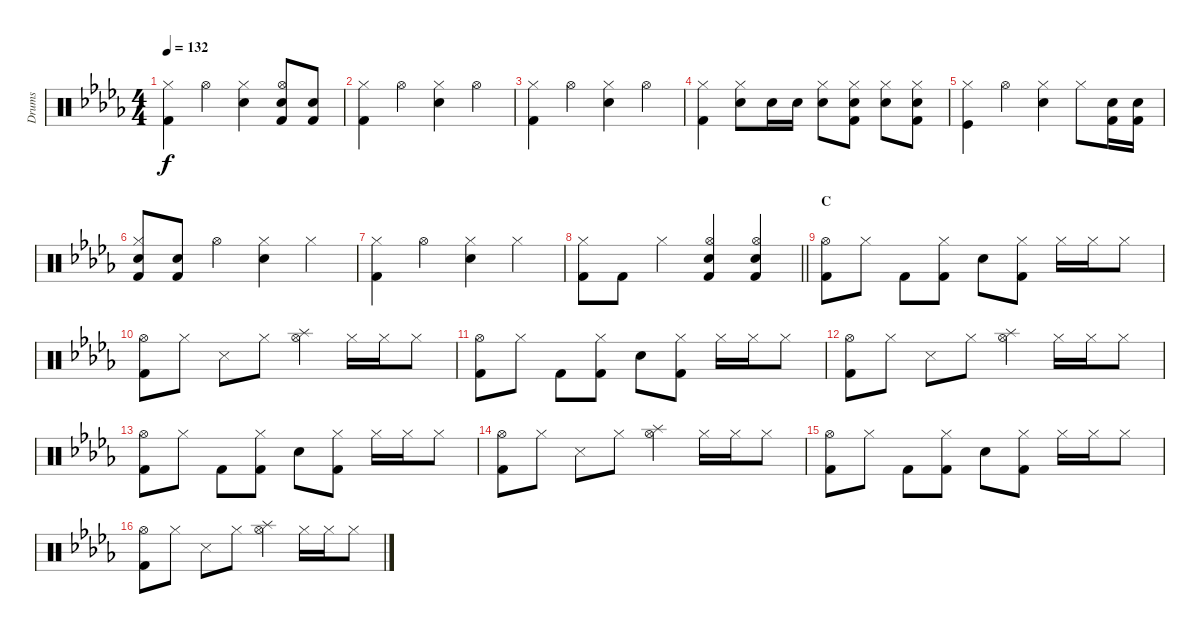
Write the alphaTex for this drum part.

\track ("Drums" "Drums") {instrument percussion}
\staff {score}
\articulation defaults
\ts (4 4)
\tempo 132
\clef neutral
\ks db
("Kick (hit) 2" "Hi-Hat (closed)").4{dy f} "Hi-Hat (open)".4 ("Snare (hit) 2" "Hi-Hat (closed)").4 ("Hi-Hat (open)" "Kick (hit) 2" "Snare (hit) 2").8 ("Kick (hit) 2" "Snare (hit) 2").8 |
("Kick (hit) 2" "Hi-Hat (closed)").4 "Hi-Hat (open)".4 ("Snare (hit) 2" "Hi-Hat (closed)").4 "Hi-Hat (open)".4 |
("Kick (hit) 2" "Hi-Hat (closed)").4 "Hi-Hat (open)".4 ("Snare (hit) 2" "Hi-Hat (closed)").4 "Hi-Hat (open)".4 |
("Kick (hit) 2" "Hi-Hat (closed)").4 ("Snare (hit) 2" "Hi-Hat (closed)").8 "Snare (hit) 2".16 "Snare (hit) 2".16 ("Snare (hit) 2" "Hi-Hat (closed)").8 ("Snare (hit) 2" "Hi-Hat (closed)" "Kick (hit) 2").8 ("Snare (hit) 2" "Hi-Hat (closed)").8 ("Snare (hit) 2" "Hi-Hat (closed)" "Kick (hit) 2").8 |
("Kick (hit)" "Hi-Hat (closed)").4 "Hi-Hat (open)".4 ("Snare (hit) 2" "Hi-Hat (closed)").4 "Hi-Hat (closed)".8 ("Kick (hit) 2" "Snare (hit) 2").16 ("Kick (hit) 2" "Snare (hit) 2").16 |
("Kick (hit) 2" "Hi-Hat (closed)" "Snare (hit) 2").8 ("Kick (hit) 2" "Snare (hit) 2").8 "Hi-Hat (open)".4 ("Snare (hit) 2" "Hi-Hat (closed)").4 "Hi-Hat (closed)".4 |
("Kick (hit) 2" "Hi-Hat (closed)").4 "Hi-Hat (open)".4 ("Snare (hit) 2" "Hi-Hat (closed)").4 "Hi-Hat (closed)".4 |
\barLineRight lightlight
("Kick (hit) 2" "Hi-Hat (closed)").8 "Kick (hit) 2".8 "Hi-Hat (closed)".4 ("Snare (hit) 2" "Hi-Hat (open)" "Kick (hit) 2").4 ("Kick (hit) 2" "Snare (hit) 2" "Hi-Hat (open)").4 |
\section ("" "C")
("Kick (hit) 2" "Hi-Hat (open)").8 "Hi-Hat (closed)".8 "Kick (hit) 2".8 ("Kick (hit) 2" "Hi-Hat (closed)").8 "Snare (hit) 2".8 ("Kick (hit) 2" "Hi-Hat (closed)").8 "Hi-Hat (closed)".16 "Hi-Hat (closed)".16 "Hi-Hat (closed)".8 |
("Hi-Hat (open)" "Kick (hit) 2").8 "Hi-Hat (closed)".8 "Snare (side stick) 3".8 "Hi-Hat (closed)".8 ("Splash (hit)" "Hi-Hat (open)").4 "Hi-Hat (closed)".16 "Hi-Hat (closed)".16 "Hi-Hat (closed)".8 |
("Kick (hit) 2" "Hi-Hat (open)").8 "Hi-Hat (closed)".8 "Kick (hit) 2".8 ("Kick (hit) 2" "Hi-Hat (closed)").8 "Snare (hit) 2".8 ("Kick (hit) 2" "Hi-Hat (closed)").8 "Hi-Hat (closed)".16 "Hi-Hat (closed)".16 "Hi-Hat (closed)".8 |
("Hi-Hat (open)" "Kick (hit) 2").8 "Hi-Hat (closed)".8 "Snare (side stick) 3".8 "Hi-Hat (closed)".8 ("Splash (hit)" "Hi-Hat (open)").4 "Hi-Hat (closed)".16 "Hi-Hat (closed)".16 "Hi-Hat (closed)".8 |
("Kick (hit) 2" "Hi-Hat (open)").8 "Hi-Hat (closed)".8 "Kick (hit) 2".8 ("Kick (hit) 2" "Hi-Hat (closed)").8 "Snare (hit) 2".8 ("Kick (hit) 2" "Hi-Hat (closed)").8 "Hi-Hat (closed)".16 "Hi-Hat (closed)".16 "Hi-Hat (closed)".8 |
("Hi-Hat (open)" "Kick (hit) 2").8 "Hi-Hat (closed)".8 "Snare (side stick) 3".8 "Hi-Hat (closed)".8 ("Splash (hit)" "Hi-Hat (open)").4 "Hi-Hat (closed)".16 "Hi-Hat (closed)".16 "Hi-Hat (closed)".8 |
("Kick (hit) 2" "Hi-Hat (open)").8 "Hi-Hat (closed)".8 "Kick (hit) 2".8 ("Kick (hit) 2" "Hi-Hat (closed)").8 "Snare (hit) 2".8 ("Kick (hit) 2" "Hi-Hat (closed)").8 "Hi-Hat (closed)".16 "Hi-Hat (closed)".16 "Hi-Hat (closed)".8 |
("Hi-Hat (open)" "Kick (hit) 2").8 "Hi-Hat (closed)".8 "Snare (side stick) 3".8 "Hi-Hat (closed)".8 ("Splash (hit)" "Hi-Hat (open)").4 "Hi-Hat (closed)".16 "Hi-Hat (closed)".16 "Hi-Hat (closed)".8
